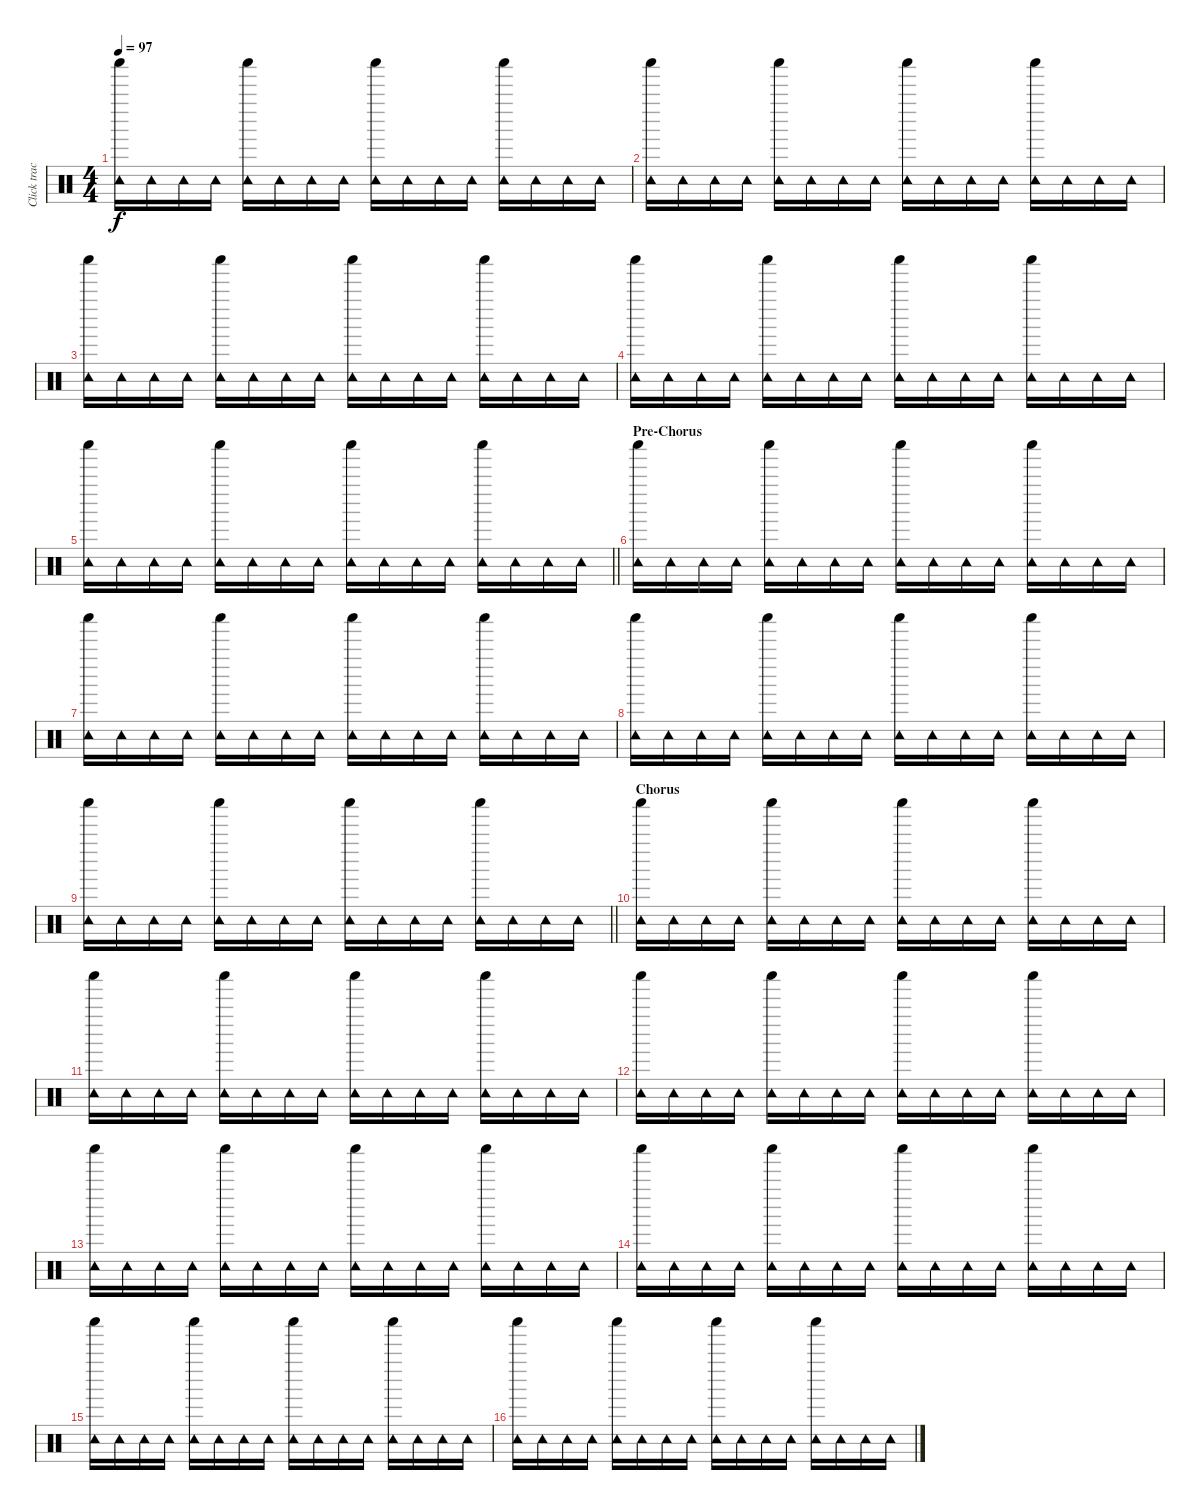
\track ("Click track" "Click trac") {instrument percussion}
\staff {score}
\articulation defaults
\ts (4 4)
\tempo 97
\clef neutral
\ks c
("Shaker (hit)" "Tambourine (hit)").16{dy f} "Tambourine (hit)".16 "Tambourine (hit)".16 "Tambourine (hit)".16 ("Shaker (hit)" "Tambourine (hit)").16 "Tambourine (hit)".16 "Tambourine (hit)".16 "Tambourine (hit)".16 ("Shaker (hit)" "Tambourine (hit)").16 "Tambourine (hit)".16 "Tambourine (hit)".16 "Tambourine (hit)".16 ("Shaker (hit)" "Tambourine (hit)").16 "Tambourine (hit)".16 "Tambourine (hit)".16 "Tambourine (hit)".16 |
("Shaker (hit)" "Tambourine (hit)").16 "Tambourine (hit)".16 "Tambourine (hit)".16 "Tambourine (hit)".16 ("Shaker (hit)" "Tambourine (hit)").16 "Tambourine (hit)".16 "Tambourine (hit)".16 "Tambourine (hit)".16 ("Shaker (hit)" "Tambourine (hit)").16 "Tambourine (hit)".16 "Tambourine (hit)".16 "Tambourine (hit)".16 ("Shaker (hit)" "Tambourine (hit)").16 "Tambourine (hit)".16 "Tambourine (hit)".16 "Tambourine (hit)".16 |
("Shaker (hit)" "Tambourine (hit)").16 "Tambourine (hit)".16 "Tambourine (hit)".16 "Tambourine (hit)".16 ("Shaker (hit)" "Tambourine (hit)").16 "Tambourine (hit)".16 "Tambourine (hit)".16 "Tambourine (hit)".16 ("Shaker (hit)" "Tambourine (hit)").16 "Tambourine (hit)".16 "Tambourine (hit)".16 "Tambourine (hit)".16 ("Shaker (hit)" "Tambourine (hit)").16 "Tambourine (hit)".16 "Tambourine (hit)".16 "Tambourine (hit)".16 |
("Shaker (hit)" "Tambourine (hit)").16 "Tambourine (hit)".16 "Tambourine (hit)".16 "Tambourine (hit)".16 ("Shaker (hit)" "Tambourine (hit)").16 "Tambourine (hit)".16 "Tambourine (hit)".16 "Tambourine (hit)".16 ("Shaker (hit)" "Tambourine (hit)").16 "Tambourine (hit)".16 "Tambourine (hit)".16 "Tambourine (hit)".16 ("Shaker (hit)" "Tambourine (hit)").16 "Tambourine (hit)".16 "Tambourine (hit)".16 "Tambourine (hit)".16 |
\barLineRight lightlight
("Shaker (hit)" "Tambourine (hit)").16 "Tambourine (hit)".16 "Tambourine (hit)".16 "Tambourine (hit)".16 ("Shaker (hit)" "Tambourine (hit)").16 "Tambourine (hit)".16 "Tambourine (hit)".16 "Tambourine (hit)".16 ("Shaker (hit)" "Tambourine (hit)").16 "Tambourine (hit)".16 "Tambourine (hit)".16 "Tambourine (hit)".16 ("Shaker (hit)" "Tambourine (hit)").16 "Tambourine (hit)".16 "Tambourine (hit)".16 "Tambourine (hit)".16 |
\section ("" "Pre-Chorus")
("Shaker (hit)" "Tambourine (hit)").16 "Tambourine (hit)".16 "Tambourine (hit)".16 "Tambourine (hit)".16 ("Shaker (hit)" "Tambourine (hit)").16 "Tambourine (hit)".16 "Tambourine (hit)".16 "Tambourine (hit)".16 ("Shaker (hit)" "Tambourine (hit)").16 "Tambourine (hit)".16 "Tambourine (hit)".16 "Tambourine (hit)".16 ("Shaker (hit)" "Tambourine (hit)").16 "Tambourine (hit)".16 "Tambourine (hit)".16 "Tambourine (hit)".16 |
("Shaker (hit)" "Tambourine (hit)").16 "Tambourine (hit)".16 "Tambourine (hit)".16 "Tambourine (hit)".16 ("Shaker (hit)" "Tambourine (hit)").16 "Tambourine (hit)".16 "Tambourine (hit)".16 "Tambourine (hit)".16 ("Shaker (hit)" "Tambourine (hit)").16 "Tambourine (hit)".16 "Tambourine (hit)".16 "Tambourine (hit)".16 ("Shaker (hit)" "Tambourine (hit)").16 "Tambourine (hit)".16 "Tambourine (hit)".16 "Tambourine (hit)".16 |
("Shaker (hit)" "Tambourine (hit)").16 "Tambourine (hit)".16 "Tambourine (hit)".16 "Tambourine (hit)".16 ("Shaker (hit)" "Tambourine (hit)").16 "Tambourine (hit)".16 "Tambourine (hit)".16 "Tambourine (hit)".16 ("Shaker (hit)" "Tambourine (hit)").16 "Tambourine (hit)".16 "Tambourine (hit)".16 "Tambourine (hit)".16 ("Shaker (hit)" "Tambourine (hit)").16 "Tambourine (hit)".16 "Tambourine (hit)".16 "Tambourine (hit)".16 |
\barLineRight lightlight
("Shaker (hit)" "Tambourine (hit)").16 "Tambourine (hit)".16 "Tambourine (hit)".16 "Tambourine (hit)".16 ("Shaker (hit)" "Tambourine (hit)").16 "Tambourine (hit)".16 "Tambourine (hit)".16 "Tambourine (hit)".16 ("Shaker (hit)" "Tambourine (hit)").16 "Tambourine (hit)".16 "Tambourine (hit)".16 "Tambourine (hit)".16 ("Shaker (hit)" "Tambourine (hit)").16 "Tambourine (hit)".16 "Tambourine (hit)".16 "Tambourine (hit)".16 |
\section ("" "Chorus")
("Shaker (hit)" "Tambourine (hit)").16 "Tambourine (hit)".16 "Tambourine (hit)".16 "Tambourine (hit)".16 ("Shaker (hit)" "Tambourine (hit)").16 "Tambourine (hit)".16 "Tambourine (hit)".16 "Tambourine (hit)".16 ("Shaker (hit)" "Tambourine (hit)").16 "Tambourine (hit)".16 "Tambourine (hit)".16 "Tambourine (hit)".16 ("Shaker (hit)" "Tambourine (hit)").16 "Tambourine (hit)".16 "Tambourine (hit)".16 "Tambourine (hit)".16 |
("Shaker (hit)" "Tambourine (hit)").16 "Tambourine (hit)".16 "Tambourine (hit)".16 "Tambourine (hit)".16 ("Shaker (hit)" "Tambourine (hit)").16 "Tambourine (hit)".16 "Tambourine (hit)".16 "Tambourine (hit)".16 ("Shaker (hit)" "Tambourine (hit)").16 "Tambourine (hit)".16 "Tambourine (hit)".16 "Tambourine (hit)".16 ("Shaker (hit)" "Tambourine (hit)").16 "Tambourine (hit)".16 "Tambourine (hit)".16 "Tambourine (hit)".16 |
("Shaker (hit)" "Tambourine (hit)").16 "Tambourine (hit)".16 "Tambourine (hit)".16 "Tambourine (hit)".16 ("Shaker (hit)" "Tambourine (hit)").16 "Tambourine (hit)".16 "Tambourine (hit)".16 "Tambourine (hit)".16 ("Shaker (hit)" "Tambourine (hit)").16 "Tambourine (hit)".16 "Tambourine (hit)".16 "Tambourine (hit)".16 ("Shaker (hit)" "Tambourine (hit)").16 "Tambourine (hit)".16 "Tambourine (hit)".16 "Tambourine (hit)".16 |
("Shaker (hit)" "Tambourine (hit)").16 "Tambourine (hit)".16 "Tambourine (hit)".16 "Tambourine (hit)".16 ("Shaker (hit)" "Tambourine (hit)").16 "Tambourine (hit)".16 "Tambourine (hit)".16 "Tambourine (hit)".16 ("Shaker (hit)" "Tambourine (hit)").16 "Tambourine (hit)".16 "Tambourine (hit)".16 "Tambourine (hit)".16 ("Shaker (hit)" "Tambourine (hit)").16 "Tambourine (hit)".16 "Tambourine (hit)".16 "Tambourine (hit)".16 |
("Shaker (hit)" "Tambourine (hit)").16 "Tambourine (hit)".16 "Tambourine (hit)".16 "Tambourine (hit)".16 ("Shaker (hit)" "Tambourine (hit)").16 "Tambourine (hit)".16 "Tambourine (hit)".16 "Tambourine (hit)".16 ("Shaker (hit)" "Tambourine (hit)").16 "Tambourine (hit)".16 "Tambourine (hit)".16 "Tambourine (hit)".16 ("Shaker (hit)" "Tambourine (hit)").16 "Tambourine (hit)".16 "Tambourine (hit)".16 "Tambourine (hit)".16 |
("Shaker (hit)" "Tambourine (hit)").16 "Tambourine (hit)".16 "Tambourine (hit)".16 "Tambourine (hit)".16 ("Shaker (hit)" "Tambourine (hit)").16 "Tambourine (hit)".16 "Tambourine (hit)".16 "Tambourine (hit)".16 ("Shaker (hit)" "Tambourine (hit)").16 "Tambourine (hit)".16 "Tambourine (hit)".16 "Tambourine (hit)".16 ("Shaker (hit)" "Tambourine (hit)").16 "Tambourine (hit)".16 "Tambourine (hit)".16 "Tambourine (hit)".16 |
("Shaker (hit)" "Tambourine (hit)").16 "Tambourine (hit)".16 "Tambourine (hit)".16 "Tambourine (hit)".16 ("Shaker (hit)" "Tambourine (hit)").16 "Tambourine (hit)".16 "Tambourine (hit)".16 "Tambourine (hit)".16 ("Shaker (hit)" "Tambourine (hit)").16 "Tambourine (hit)".16 "Tambourine (hit)".16 "Tambourine (hit)".16 ("Shaker (hit)" "Tambourine (hit)").16 "Tambourine (hit)".16 "Tambourine (hit)".16 "Tambourine (hit)".16
